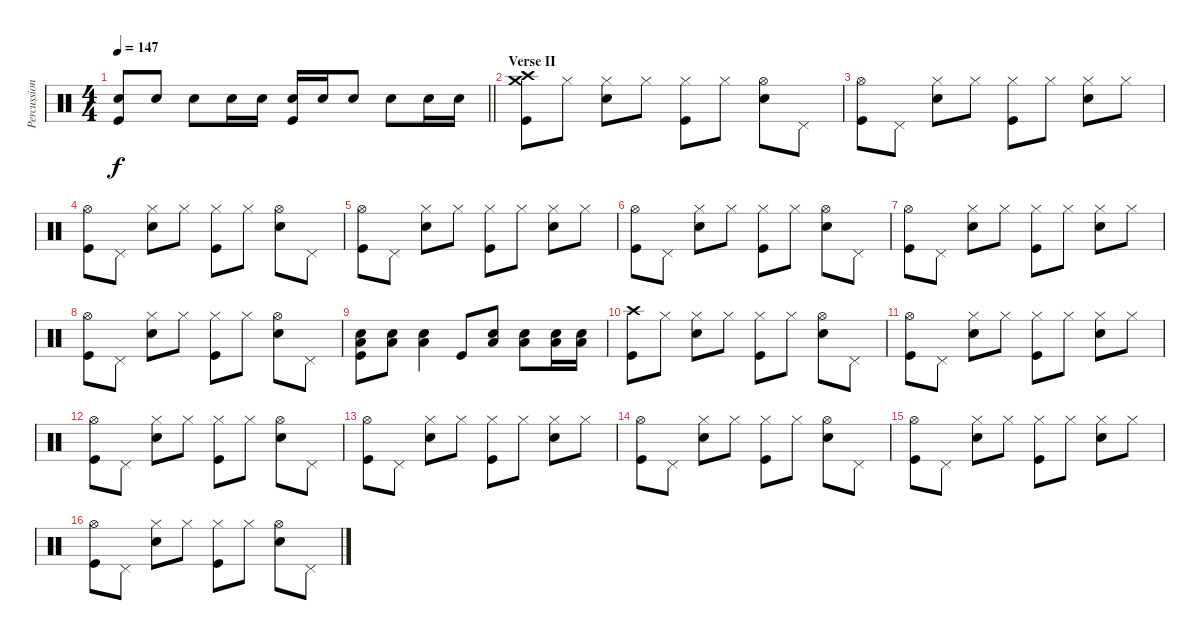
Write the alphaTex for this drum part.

\track ("Percussion" "Percussion") {instrument percussion}
\staff {score}
\articulation defaults
\ts (4 4)
\tempo 147
\clef neutral
\barLineRight lightlight
\ks c
("Electric Snare (hit)" "Kick (hit)").8{dy f} "Electric Snare (hit)".8 "Electric Snare (hit)".8 "Electric Snare (hit)".16 "Electric Snare (hit)".16 ("Electric Snare (hit)" "Kick (hit)").16 "Electric Snare (hit)".16 "Electric Snare (hit)".8 "Electric Snare (hit)".8 "Electric Snare (hit)".16 "Electric Snare (hit)".16 |
\section ("" "Verse II")
("Crash high (hit)" "Crash medium (hit)" "Kick (hit)").8 "Hi-Hat (closed)".8 ("Hi-Hat (closed)" "Electric Snare (hit)").8 "Hi-Hat (closed)".8 ("Hi-Hat (closed)" "Kick (hit)").8 "Hi-Hat (closed)".8 ("Hi-Hat (open)" "Electric Snare (hit)").8 "Pedal Hi-Hat (hit)".8 |
("Hi-Hat (open)" "Kick (hit)").8 "Pedal Hi-Hat (hit)".8 ("Hi-Hat (closed)" "Electric Snare (hit)").8 "Hi-Hat (closed)".8 ("Hi-Hat (closed)" "Kick (hit)").8 "Hi-Hat (closed)".8 ("Hi-Hat (closed)" "Electric Snare (hit)").8 "Hi-Hat (closed)".8 |
("Hi-Hat (open)" "Kick (hit)").8 "Pedal Hi-Hat (hit)".8 ("Hi-Hat (closed)" "Electric Snare (hit)").8 "Hi-Hat (closed)".8 ("Hi-Hat (closed)" "Kick (hit)").8 "Hi-Hat (closed)".8 ("Hi-Hat (open)" "Electric Snare (hit)").8 "Pedal Hi-Hat (hit)".8 |
("Hi-Hat (open)" "Kick (hit)").8 "Pedal Hi-Hat (hit)".8 ("Hi-Hat (closed)" "Electric Snare (hit)").8 "Hi-Hat (closed)".8 ("Hi-Hat (closed)" "Kick (hit)").8 "Hi-Hat (closed)".8 ("Hi-Hat (closed)" "Electric Snare (hit)").8 "Hi-Hat (closed)".8 |
("Hi-Hat (open)" "Kick (hit)").8 "Pedal Hi-Hat (hit)".8 ("Hi-Hat (closed)" "Electric Snare (hit)").8 "Hi-Hat (closed)".8 ("Hi-Hat (closed)" "Kick (hit)").8 "Hi-Hat (closed)".8 ("Hi-Hat (open)" "Electric Snare (hit)").8 "Pedal Hi-Hat (hit)".8 |
("Hi-Hat (open)" "Kick (hit)").8 "Pedal Hi-Hat (hit)".8 ("Hi-Hat (closed)" "Electric Snare (hit)").8 "Hi-Hat (closed)".8 ("Hi-Hat (closed)" "Kick (hit)").8 "Hi-Hat (closed)".8 ("Hi-Hat (closed)" "Electric Snare (hit)").8 "Hi-Hat (closed)".8 |
("Hi-Hat (open)" "Kick (hit)").8 "Pedal Hi-Hat (hit)".8 ("Hi-Hat (closed)" "Electric Snare (hit)").8 "Hi-Hat (closed)".8 ("Hi-Hat (closed)" "Kick (hit)").8 "Hi-Hat (closed)".8 ("Hi-Hat (open)" "Electric Snare (hit)").8 "Pedal Hi-Hat (hit)".8 |
("Electric Snare (hit)" "Low Floor Tom (hit)" "Kick (hit)").8 ("Electric Snare (hit)" "Low Floor Tom (hit)").8 ("Electric Snare (hit)" "Low Floor Tom (hit)").4 "Kick (hit)".8 ("Electric Snare (hit)" "Low Floor Tom (hit)").8 ("Electric Snare (hit)" "Low Floor Tom (hit)").8 ("Electric Snare (hit)" "Low Floor Tom (hit)").16 ("Electric Snare (hit)" "Low Floor Tom (hit)").16 |
("Crash high (hit)" "Kick (hit)").8 "Hi-Hat (closed)".8 ("Hi-Hat (closed)" "Electric Snare (hit)").8 "Hi-Hat (closed)".8 ("Hi-Hat (closed)" "Kick (hit)").8 "Hi-Hat (closed)".8 ("Hi-Hat (open)" "Electric Snare (hit)").8 "Pedal Hi-Hat (hit)".8 |
("Hi-Hat (open)" "Kick (hit)").8 "Pedal Hi-Hat (hit)".8 ("Hi-Hat (closed)" "Electric Snare (hit)").8 "Hi-Hat (closed)".8 ("Hi-Hat (closed)" "Kick (hit)").8 "Hi-Hat (closed)".8 ("Hi-Hat (closed)" "Electric Snare (hit)").8 "Hi-Hat (closed)".8 |
("Hi-Hat (open)" "Kick (hit)").8 "Pedal Hi-Hat (hit)".8 ("Hi-Hat (closed)" "Electric Snare (hit)").8 "Hi-Hat (closed)".8 ("Hi-Hat (closed)" "Kick (hit)").8 "Hi-Hat (closed)".8 ("Hi-Hat (open)" "Electric Snare (hit)").8 "Pedal Hi-Hat (hit)".8 |
("Hi-Hat (open)" "Kick (hit)").8 "Pedal Hi-Hat (hit)".8 ("Hi-Hat (closed)" "Electric Snare (hit)").8 "Hi-Hat (closed)".8 ("Hi-Hat (closed)" "Kick (hit)").8 "Hi-Hat (closed)".8 ("Hi-Hat (closed)" "Electric Snare (hit)").8 "Hi-Hat (closed)".8 |
("Hi-Hat (open)" "Kick (hit)").8 "Pedal Hi-Hat (hit)".8 ("Hi-Hat (closed)" "Electric Snare (hit)").8 "Hi-Hat (closed)".8 ("Hi-Hat (closed)" "Kick (hit)").8 "Hi-Hat (closed)".8 ("Hi-Hat (open)" "Electric Snare (hit)").8 "Pedal Hi-Hat (hit)".8 |
("Hi-Hat (open)" "Kick (hit)").8 "Pedal Hi-Hat (hit)".8 ("Hi-Hat (closed)" "Electric Snare (hit)").8 "Hi-Hat (closed)".8 ("Hi-Hat (closed)" "Kick (hit)").8 "Hi-Hat (closed)".8 ("Hi-Hat (closed)" "Electric Snare (hit)").8 "Hi-Hat (closed)".8 |
("Hi-Hat (open)" "Kick (hit)").8 "Pedal Hi-Hat (hit)".8 ("Hi-Hat (closed)" "Electric Snare (hit)").8 "Hi-Hat (closed)".8 ("Hi-Hat (closed)" "Kick (hit)").8 "Hi-Hat (closed)".8 ("Hi-Hat (open)" "Electric Snare (hit)").8 "Pedal Hi-Hat (hit)".8
